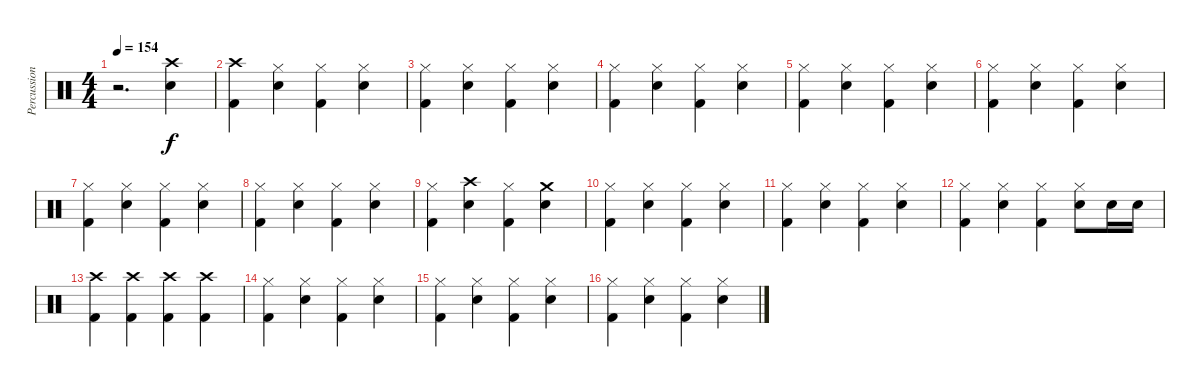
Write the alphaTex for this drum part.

\track ("Percussion" "Percussion") {instrument percussion}
\staff {score}
\articulation defaults
\ts (4 4)
\tempo 154
\clef neutral
\ks c
r.2{d dy f} ("Crash high (hit)" "Snare (hit) 2").4 |
("Crash high (hit)" "Kick (hit) 2").4 ("Hi-Hat (closed)" "Snare (hit) 2").4 ("Hi-Hat (closed)" "Kick (hit) 2").4 ("Hi-Hat (closed)" "Snare (hit) 2").4 |
("Hi-Hat (closed)" "Kick (hit) 2").4 ("Hi-Hat (closed)" "Snare (hit) 2").4 ("Hi-Hat (closed)" "Kick (hit) 2").4 ("Hi-Hat (closed)" "Snare (hit) 2").4 |
("Hi-Hat (closed)" "Kick (hit) 2").4 ("Hi-Hat (closed)" "Snare (hit) 2").4 ("Hi-Hat (closed)" "Kick (hit) 2").4 ("Hi-Hat (closed)" "Snare (hit) 2").4 |
("Hi-Hat (closed)" "Kick (hit) 2").4 ("Hi-Hat (closed)" "Snare (hit) 2").4 ("Hi-Hat (closed)" "Kick (hit) 2").4 ("Hi-Hat (closed)" "Snare (hit) 2").4 |
("Hi-Hat (closed)" "Kick (hit) 2").4 ("Hi-Hat (closed)" "Snare (hit) 2").4 ("Hi-Hat (closed)" "Kick (hit) 2").4 ("Hi-Hat (closed)" "Snare (hit) 2").4 |
("Hi-Hat (closed)" "Kick (hit) 2").4 ("Hi-Hat (closed)" "Snare (hit) 2").4 ("Hi-Hat (closed)" "Kick (hit) 2").4 ("Hi-Hat (closed)" "Snare (hit) 2").4 |
("Hi-Hat (closed)" "Kick (hit) 2").4 ("Hi-Hat (closed)" "Snare (hit) 2").4 ("Hi-Hat (closed)" "Kick (hit) 2").4 ("Hi-Hat (closed)" "Snare (hit) 2").4 |
("Hi-Hat (closed)" "Kick (hit) 2").4 ("Crash high (hit)" "Snare (hit) 2").4 ("Hi-Hat (closed)" "Kick (hit) 2").4 ("Crash medium (hit)" "Snare (hit) 2").4 |
("Hi-Hat (closed)" "Kick (hit) 2").4 ("Hi-Hat (closed)" "Snare (hit) 2").4 ("Hi-Hat (closed)" "Kick (hit) 2").4 ("Hi-Hat (closed)" "Snare (hit) 2").4 |
("Hi-Hat (closed)" "Kick (hit) 2").4 ("Hi-Hat (closed)" "Snare (hit) 2").4 ("Hi-Hat (closed)" "Kick (hit) 2").4 ("Hi-Hat (closed)" "Snare (hit) 2").4 |
("Hi-Hat (closed)" "Kick (hit) 2").4 ("Hi-Hat (closed)" "Snare (hit) 2").4 ("Hi-Hat (closed)" "Kick (hit) 2").4 ("Hi-Hat (closed)" "Snare (hit) 2").8 "Snare (hit) 2".16 "Snare (hit) 2".16 |
("Crash high (hit)" "Kick (hit) 2").4 ("Crash high (hit)" "Kick (hit) 2").4 ("Crash high (hit)" "Kick (hit) 2").4 ("Crash high (hit)" "Kick (hit) 2").4 |
("Hi-Hat (closed)" "Kick (hit) 2").4 ("Hi-Hat (closed)" "Snare (hit) 2").4 ("Hi-Hat (closed)" "Kick (hit) 2").4 ("Hi-Hat (closed)" "Snare (hit) 2").4 |
("Hi-Hat (closed)" "Kick (hit) 2").4 ("Hi-Hat (closed)" "Snare (hit) 2").4 ("Hi-Hat (closed)" "Kick (hit) 2").4 ("Hi-Hat (closed)" "Snare (hit) 2").4 |
("Hi-Hat (closed)" "Kick (hit) 2").4 ("Hi-Hat (closed)" "Snare (hit) 2").4 ("Hi-Hat (closed)" "Kick (hit) 2").4 ("Hi-Hat (closed)" "Snare (hit) 2").4
